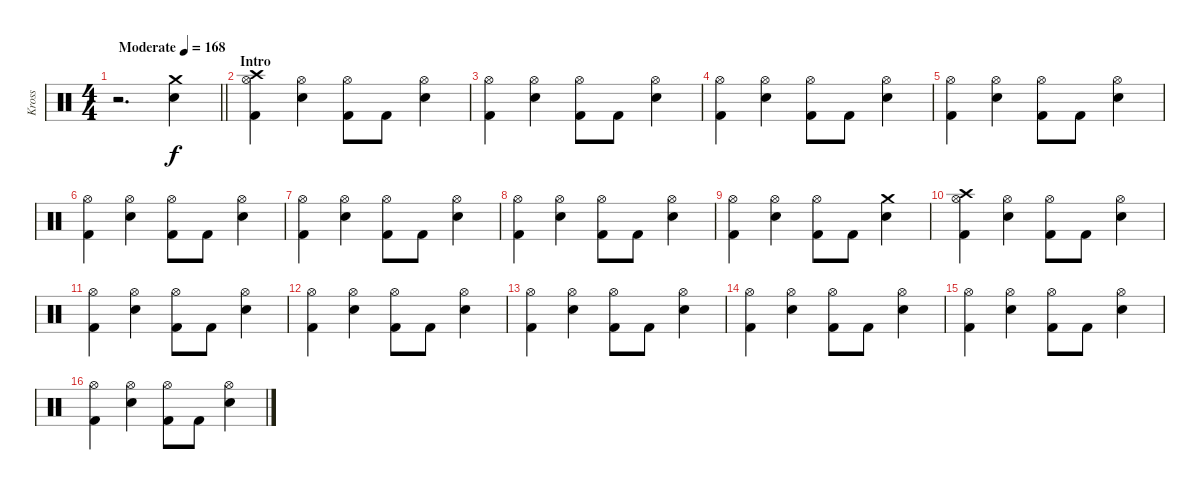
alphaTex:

\track ("Kross" "Kross") {instrument percussion}
\staff
\articulation defaults
\ts (4 4)
\tempo (168 "Moderate")
\clef neutral
\barLineRight lightlight
\ks c
r.2{d dy f} ("Crash medium (hit)" "Electric Snare (hit)").4 |
\section ("" "Intro")
("Crash high (hit)" "Hi-Hat (open)" "Kick (hit) 2").4 ("Hi-Hat (open)" "Electric Snare (hit)").4 ("Hi-Hat (open)" "Kick (hit) 2").8 "Kick (hit) 2".8 ("Hi-Hat (open)" "Electric Snare (hit)").4 |
("Hi-Hat (open)" "Kick (hit) 2").4 ("Hi-Hat (open)" "Electric Snare (hit)").4 ("Hi-Hat (open)" "Kick (hit) 2").8 "Kick (hit) 2".8 ("Hi-Hat (open)" "Electric Snare (hit)").4 |
("Hi-Hat (open)" "Kick (hit) 2").4 ("Hi-Hat (open)" "Electric Snare (hit)").4 ("Hi-Hat (open)" "Kick (hit) 2").8 "Kick (hit) 2".8 ("Hi-Hat (open)" "Electric Snare (hit)").4 |
("Hi-Hat (open)" "Kick (hit) 2").4 ("Hi-Hat (open)" "Electric Snare (hit)").4 ("Hi-Hat (open)" "Kick (hit) 2").8 "Kick (hit) 2".8 ("Hi-Hat (open)" "Electric Snare (hit)").4 |
("Hi-Hat (open)" "Kick (hit) 2").4 ("Hi-Hat (open)" "Electric Snare (hit)").4 ("Hi-Hat (open)" "Kick (hit) 2").8 "Kick (hit) 2".8 ("Hi-Hat (open)" "Electric Snare (hit)").4 |
("Hi-Hat (open)" "Kick (hit) 2").4 ("Hi-Hat (open)" "Electric Snare (hit)").4 ("Hi-Hat (open)" "Kick (hit) 2").8 "Kick (hit) 2".8 ("Hi-Hat (open)" "Electric Snare (hit)").4 |
("Hi-Hat (open)" "Kick (hit) 2").4 ("Hi-Hat (open)" "Electric Snare (hit)").4 ("Hi-Hat (open)" "Kick (hit) 2").8 "Kick (hit) 2".8 ("Hi-Hat (open)" "Electric Snare (hit)").4 |
("Hi-Hat (open)" "Kick (hit) 2").4 ("Hi-Hat (open)" "Electric Snare (hit)").4 ("Hi-Hat (open)" "Kick (hit) 2").8 "Kick (hit) 2".8 ("Crash medium (hit)" "Electric Snare (hit)").4 |
("Crash high (hit)" "Hi-Hat (open)" "Kick (hit) 2").4 ("Hi-Hat (open)" "Electric Snare (hit)").4 ("Hi-Hat (open)" "Kick (hit) 2").8 "Kick (hit) 2".8 ("Hi-Hat (open)" "Electric Snare (hit)").4 |
("Hi-Hat (open)" "Kick (hit) 2").4 ("Hi-Hat (open)" "Electric Snare (hit)").4 ("Hi-Hat (open)" "Kick (hit) 2").8 "Kick (hit) 2".8 ("Hi-Hat (open)" "Electric Snare (hit)").4 |
("Hi-Hat (open)" "Kick (hit) 2").4 ("Hi-Hat (open)" "Electric Snare (hit)").4 ("Hi-Hat (open)" "Kick (hit) 2").8 "Kick (hit) 2".8 ("Hi-Hat (open)" "Electric Snare (hit)").4 |
("Hi-Hat (open)" "Kick (hit) 2").4 ("Hi-Hat (open)" "Electric Snare (hit)").4 ("Hi-Hat (open)" "Kick (hit) 2").8 "Kick (hit) 2".8 ("Hi-Hat (open)" "Electric Snare (hit)").4 |
("Hi-Hat (open)" "Kick (hit) 2").4 ("Hi-Hat (open)" "Electric Snare (hit)").4 ("Hi-Hat (open)" "Kick (hit) 2").8 "Kick (hit) 2".8 ("Hi-Hat (open)" "Electric Snare (hit)").4 |
("Hi-Hat (open)" "Kick (hit) 2").4 ("Hi-Hat (open)" "Electric Snare (hit)").4 ("Hi-Hat (open)" "Kick (hit) 2").8 "Kick (hit) 2".8 ("Hi-Hat (open)" "Electric Snare (hit)").4 |
("Hi-Hat (open)" "Kick (hit) 2").4 ("Hi-Hat (open)" "Electric Snare (hit)").4 ("Hi-Hat (open)" "Kick (hit) 2").8 "Kick (hit) 2".8 ("Hi-Hat (open)" "Electric Snare (hit)").4
